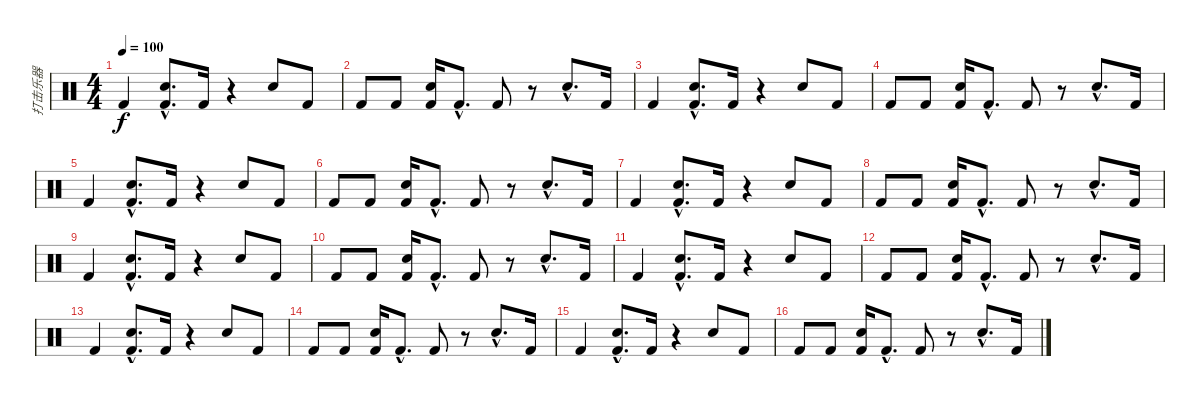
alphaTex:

\track ("打击乐器" "打击乐器") {instrument percussion}
\staff {score}
\articulation defaults
\ts (4 4)
\tempo 100
\clef neutral
\ks c "Kick (hit) 2".4{dy f}
("Hand Clap (hit)"{hac} "Kick (hit) 2"{hac}).8{d} "Kick (hit) 2".16 r.4 "Hand Clap (hit)".8 "Kick (hit) 2".8 |
"Kick (hit) 2".8 "Kick (hit) 2".8 ("Hand Clap (hit)" "Kick (hit) 2").16 "Kick (hit) 2"{hac}.8{d} "Kick (hit) 2".8 r.8 "Hand Clap (hit)"{hac}.8{d} "Kick (hit) 2".16 |
"Kick (hit) 2".4 ("Hand Clap (hit)"{hac} "Kick (hit) 2"{hac}).8{d} "Kick (hit) 2".16 r.4 "Hand Clap (hit)".8 "Kick (hit) 2".8 |
"Kick (hit) 2".8 "Kick (hit) 2".8 ("Hand Clap (hit)" "Kick (hit) 2").16 "Kick (hit) 2"{hac}.8{d} "Kick (hit) 2".8 r.8 "Hand Clap (hit)"{hac}.8{d} "Kick (hit) 2".16 |
"Kick (hit) 2".4 ("Hand Clap (hit)"{hac} "Kick (hit) 2"{hac}).8{d} "Kick (hit) 2".16 r.4 "Hand Clap (hit)".8 "Kick (hit) 2".8 |
"Kick (hit) 2".8 "Kick (hit) 2".8 ("Hand Clap (hit)" "Kick (hit) 2").16 "Kick (hit) 2"{hac}.8{d} "Kick (hit) 2".8 r.8 "Hand Clap (hit)"{hac}.8{d} "Kick (hit) 2".16 |
"Kick (hit) 2".4 ("Hand Clap (hit)"{hac} "Kick (hit) 2"{hac}).8{d} "Kick (hit) 2".16 r.4 "Hand Clap (hit)".8 "Kick (hit) 2".8 |
"Kick (hit) 2".8 "Kick (hit) 2".8 ("Hand Clap (hit)" "Kick (hit) 2").16 "Kick (hit) 2"{hac}.8{d} "Kick (hit) 2".8 r.8 "Hand Clap (hit)"{hac}.8{d} "Kick (hit) 2".16 |
"Kick (hit) 2".4 ("Hand Clap (hit)"{hac} "Kick (hit) 2"{hac}).8{d} "Kick (hit) 2".16 r.4 "Hand Clap (hit)".8 "Kick (hit) 2".8 |
"Kick (hit) 2".8 "Kick (hit) 2".8 ("Hand Clap (hit)" "Kick (hit) 2").16 "Kick (hit) 2"{hac}.8{d} "Kick (hit) 2".8 r.8 "Hand Clap (hit)"{hac}.8{d} "Kick (hit) 2".16 |
"Kick (hit) 2".4 ("Hand Clap (hit)"{hac} "Kick (hit) 2"{hac}).8{d} "Kick (hit) 2".16 r.4 "Hand Clap (hit)".8 "Kick (hit) 2".8 |
"Kick (hit) 2".8 "Kick (hit) 2".8 ("Hand Clap (hit)" "Kick (hit) 2").16 "Kick (hit) 2"{hac}.8{d} "Kick (hit) 2".8 r.8 "Hand Clap (hit)"{hac}.8{d} "Kick (hit) 2".16 |
"Kick (hit) 2".4 ("Hand Clap (hit)"{hac} "Kick (hit) 2"{hac}).8{d} "Kick (hit) 2".16 r.4 "Hand Clap (hit)".8 "Kick (hit) 2".8 |
"Kick (hit) 2".8 "Kick (hit) 2".8 ("Hand Clap (hit)" "Kick (hit) 2").16 "Kick (hit) 2"{hac}.8{d} "Kick (hit) 2".8 r.8 "Hand Clap (hit)"{hac}.8{d} "Kick (hit) 2".16 |
"Kick (hit) 2".4 ("Hand Clap (hit)"{hac} "Kick (hit) 2"{hac}).8{d} "Kick (hit) 2".16 r.4 "Hand Clap (hit)".8 "Kick (hit) 2".8 |
"Kick (hit) 2".8 "Kick (hit) 2".8 ("Hand Clap (hit)" "Kick (hit) 2").16 "Kick (hit) 2"{hac}.8{d} "Kick (hit) 2".8 r.8 "Hand Clap (hit)"{hac}.8{d} "Kick (hit) 2".16
